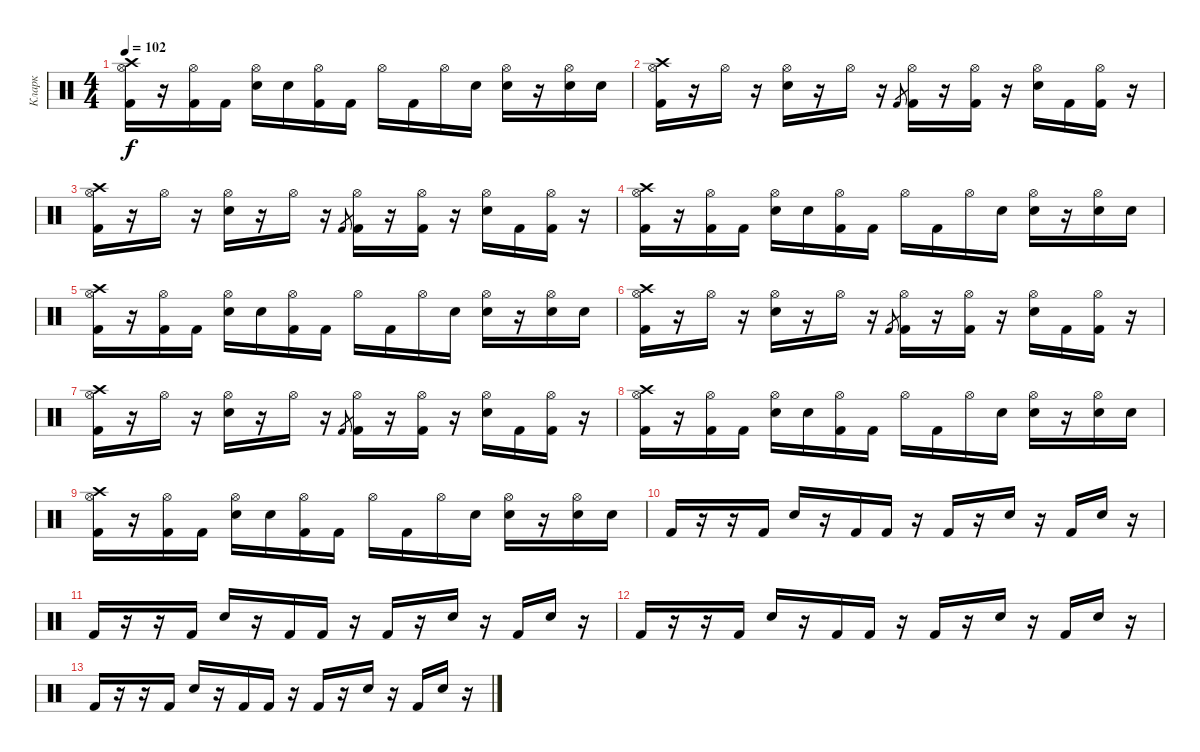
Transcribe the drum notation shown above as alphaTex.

\track ("Кларк" "Кларк") {instrument percussion}
\staff {score}
\articulation defaults
\ts (4 4)
\tempo 102
\clef neutral
\ks c
("Hi-Hat (open)" "Crash high (hit)" "Kick (hit) 2").16{dy f} r.16 ("Hi-Hat (open)" "Kick (hit) 2").16 "Kick (hit) 2".16 ("Hi-Hat (open)" "Electric Snare (hit)").16 "Electric Snare (hit)".16 ("Hi-Hat (open)" "Kick (hit) 2").16 "Kick (hit) 2".16 "Hi-Hat (open)".16 "Kick (hit) 2".16 "Hi-Hat (open)".16 "Electric Snare (hit)".16 ("Hi-Hat (open)" "Electric Snare (hit)").16 r.16 ("Hi-Hat (open)" "Electric Snare (hit)").16 "Electric Snare (hit)".16 |
("Hi-Hat (open)" "Crash high (hit)" "Kick (hit) 2").16 r.16 "Hi-Hat (open)".16 r.16 ("Hi-Hat (open)" "Electric Snare (hit)").16 r.16 "Hi-Hat (open)".16 r.16 "Kick (hit) 2".8{gr} ("Hi-Hat (open)" "Kick (hit) 2").16 r.16 ("Hi-Hat (open)" "Kick (hit) 2").16 r.16 ("Hi-Hat (open)" "Electric Snare (hit)").16 "Kick (hit) 2".16 ("Hi-Hat (open)" "Kick (hit) 2").16 r.16 |
("Hi-Hat (open)" "Crash high (hit)" "Kick (hit) 2").16 r.16 "Hi-Hat (open)".16 r.16 ("Hi-Hat (open)" "Electric Snare (hit)").16 r.16 "Hi-Hat (open)".16 r.16 "Kick (hit) 2".8{gr} ("Hi-Hat (open)" "Kick (hit) 2").16 r.16 ("Hi-Hat (open)" "Kick (hit) 2").16 r.16 ("Hi-Hat (open)" "Electric Snare (hit)").16 "Kick (hit) 2".16 ("Hi-Hat (open)" "Kick (hit) 2").16 r.16 |
("Hi-Hat (open)" "Crash high (hit)" "Kick (hit) 2").16 r.16 ("Hi-Hat (open)" "Kick (hit) 2").16 "Kick (hit) 2".16 ("Hi-Hat (open)" "Electric Snare (hit)").16 "Electric Snare (hit)".16 ("Hi-Hat (open)" "Kick (hit) 2").16 "Kick (hit) 2".16 "Hi-Hat (open)".16 "Kick (hit) 2".16 "Hi-Hat (open)".16 "Electric Snare (hit)".16 ("Hi-Hat (open)" "Electric Snare (hit)").16 r.16 ("Hi-Hat (open)" "Electric Snare (hit)").16 "Electric Snare (hit)".16 |
("Hi-Hat (open)" "Crash high (hit)" "Kick (hit) 2").16 r.16 ("Hi-Hat (open)" "Kick (hit) 2").16 "Kick (hit) 2".16 ("Hi-Hat (open)" "Electric Snare (hit)").16 "Electric Snare (hit)".16 ("Hi-Hat (open)" "Kick (hit) 2").16 "Kick (hit) 2".16 "Hi-Hat (open)".16 "Kick (hit) 2".16 "Hi-Hat (open)".16 "Electric Snare (hit)".16 ("Hi-Hat (open)" "Electric Snare (hit)").16 r.16 ("Hi-Hat (open)" "Electric Snare (hit)").16 "Electric Snare (hit)".16 |
("Hi-Hat (open)" "Crash high (hit)" "Kick (hit) 2").16 r.16 "Hi-Hat (open)".16 r.16 ("Hi-Hat (open)" "Electric Snare (hit)").16 r.16 "Hi-Hat (open)".16 r.16 "Kick (hit) 2".8{gr} ("Hi-Hat (open)" "Kick (hit) 2").16 r.16 ("Hi-Hat (open)" "Kick (hit) 2").16 r.16 ("Hi-Hat (open)" "Electric Snare (hit)").16 "Kick (hit) 2".16 ("Hi-Hat (open)" "Kick (hit) 2").16 r.16 |
("Hi-Hat (open)" "Crash high (hit)" "Kick (hit) 2").16 r.16 "Hi-Hat (open)".16 r.16 ("Hi-Hat (open)" "Electric Snare (hit)").16 r.16 "Hi-Hat (open)".16 r.16 "Kick (hit) 2".8{gr} ("Hi-Hat (open)" "Kick (hit) 2").16 r.16 ("Hi-Hat (open)" "Kick (hit) 2").16 r.16 ("Hi-Hat (open)" "Electric Snare (hit)").16 "Kick (hit) 2".16 ("Hi-Hat (open)" "Kick (hit) 2").16 r.16 |
("Hi-Hat (open)" "Crash high (hit)" "Kick (hit) 2").16 r.16 ("Hi-Hat (open)" "Kick (hit) 2").16 "Kick (hit) 2".16 ("Hi-Hat (open)" "Electric Snare (hit)").16 "Electric Snare (hit)".16 ("Hi-Hat (open)" "Kick (hit) 2").16 "Kick (hit) 2".16 "Hi-Hat (open)".16 "Kick (hit) 2".16 "Hi-Hat (open)".16 "Electric Snare (hit)".16 ("Hi-Hat (open)" "Electric Snare (hit)").16 r.16 ("Hi-Hat (open)" "Electric Snare (hit)").16 "Electric Snare (hit)".16 |
("Hi-Hat (open)" "Crash high (hit)" "Kick (hit) 2").16 r.16 ("Hi-Hat (open)" "Kick (hit) 2").16 "Kick (hit) 2".16 ("Hi-Hat (open)" "Electric Snare (hit)").16 "Electric Snare (hit)".16 ("Hi-Hat (open)" "Kick (hit) 2").16 "Kick (hit) 2".16 "Hi-Hat (open)".16 "Kick (hit) 2".16 "Hi-Hat (open)".16 "Electric Snare (hit)".16 ("Hi-Hat (open)" "Electric Snare (hit)").16 r.16 ("Hi-Hat (open)" "Electric Snare (hit)").16 "Electric Snare (hit)".16 |
"Kick (hit) 2".16 r.16 r.16 "Kick (hit) 2".16 "Electric Snare (hit)".16 r.16 "Kick (hit) 2".16 "Kick (hit) 2".16 r.16 "Kick (hit) 2".16 r.16 "Electric Snare (hit)".16 r.16 "Kick (hit) 2".16 "Electric Snare (hit)".16 r.16 |
"Kick (hit) 2".16 r.16 r.16 "Kick (hit) 2".16 "Electric Snare (hit)".16 r.16 "Kick (hit) 2".16 "Kick (hit) 2".16 r.16 "Kick (hit) 2".16 r.16 "Electric Snare (hit)".16 r.16 "Kick (hit) 2".16 "Electric Snare (hit)".16 r.16 |
"Kick (hit) 2".16 r.16 r.16 "Kick (hit) 2".16 "Electric Snare (hit)".16 r.16 "Kick (hit) 2".16 "Kick (hit) 2".16 r.16 "Kick (hit) 2".16 r.16 "Electric Snare (hit)".16 r.16 "Kick (hit) 2".16 "Electric Snare (hit)".16 r.16 |
"Kick (hit) 2".16 r.16 r.16 "Kick (hit) 2".16 "Electric Snare (hit)".16 r.16 "Kick (hit) 2".16 "Kick (hit) 2".16 r.16 "Kick (hit) 2".16 r.16 "Electric Snare (hit)".16 r.16 "Kick (hit) 2".16 "Electric Snare (hit)".16 r.16
